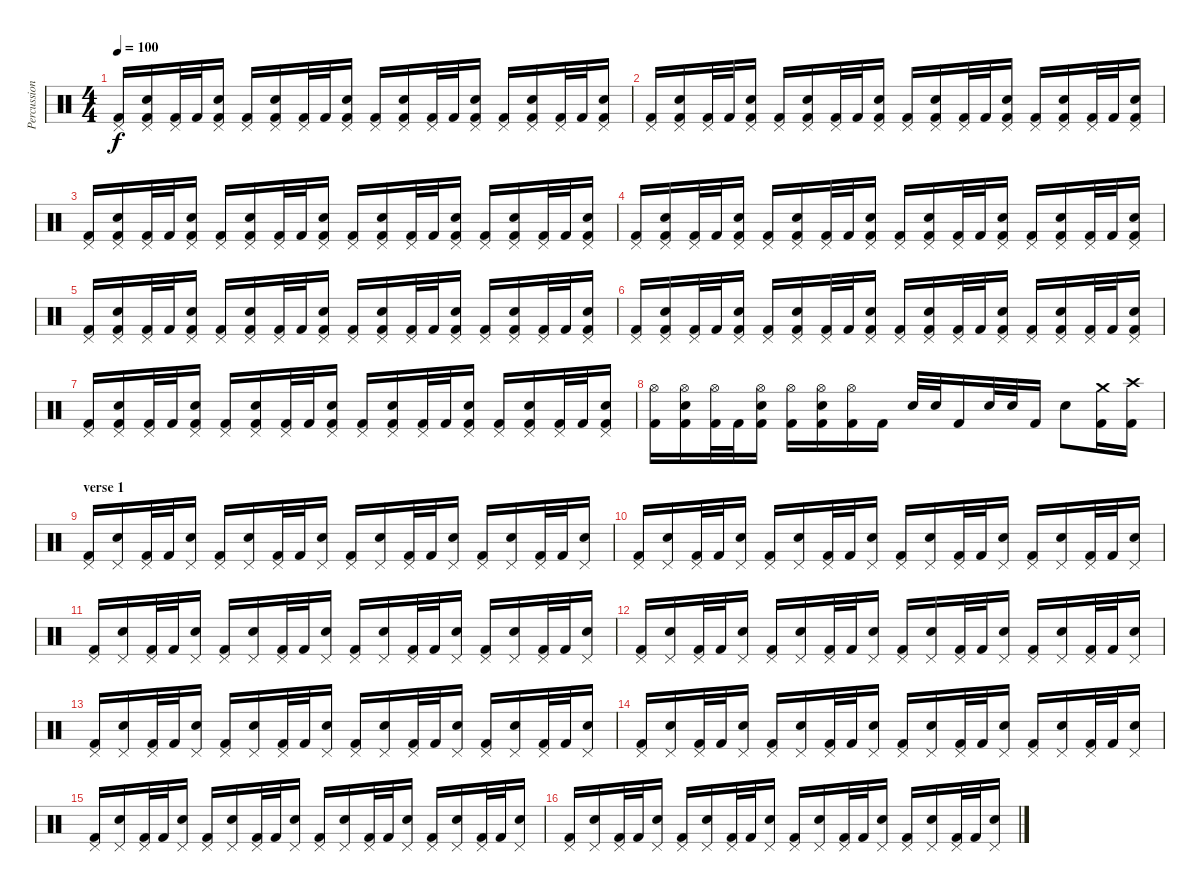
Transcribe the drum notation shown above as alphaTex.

\track ("Percussion" "Percussion") {instrument percussion}
\staff {score}
\articulation defaults
\ts (4 4)
\tempo 100
\clef neutral
\ks c
("Pedal Hi-Hat (hit)" "Kick (hit) 2").16{dy f} ("Pedal Hi-Hat (hit)" "Electric Snare (hit)" "Kick (hit) 2").16 ("Pedal Hi-Hat (hit)" "Kick (hit) 2").32 "Kick (hit) 2".32 ("Pedal Hi-Hat (hit)" "Electric Snare (hit)" "Kick (hit) 2").16 ("Pedal Hi-Hat (hit)" "Kick (hit) 2").16 ("Pedal Hi-Hat (hit)" "Electric Snare (hit)" "Kick (hit) 2").16 ("Pedal Hi-Hat (hit)" "Kick (hit) 2").32 "Kick (hit) 2".32 ("Pedal Hi-Hat (hit)" "Electric Snare (hit)" "Kick (hit) 2").16 ("Pedal Hi-Hat (hit)" "Kick (hit) 2").16 ("Pedal Hi-Hat (hit)" "Electric Snare (hit)" "Kick (hit) 2").16 ("Pedal Hi-Hat (hit)" "Kick (hit) 2").32 "Kick (hit) 2".32 ("Pedal Hi-Hat (hit)" "Electric Snare (hit)" "Kick (hit) 2").16 ("Pedal Hi-Hat (hit)" "Kick (hit) 2").16 ("Pedal Hi-Hat (hit)" "Electric Snare (hit)" "Kick (hit) 2").16 ("Pedal Hi-Hat (hit)" "Kick (hit) 2").32 "Kick (hit) 2".32 ("Pedal Hi-Hat (hit)" "Electric Snare (hit)" "Kick (hit) 2").16 |
("Pedal Hi-Hat (hit)" "Kick (hit) 2").16 ("Pedal Hi-Hat (hit)" "Electric Snare (hit)" "Kick (hit) 2").16 ("Pedal Hi-Hat (hit)" "Kick (hit) 2").32 "Kick (hit) 2".32 ("Pedal Hi-Hat (hit)" "Electric Snare (hit)" "Kick (hit) 2").16 ("Pedal Hi-Hat (hit)" "Kick (hit) 2").16 ("Pedal Hi-Hat (hit)" "Electric Snare (hit)" "Kick (hit) 2").16 ("Pedal Hi-Hat (hit)" "Kick (hit) 2").32 "Kick (hit) 2".32 ("Pedal Hi-Hat (hit)" "Electric Snare (hit)" "Kick (hit) 2").16 ("Pedal Hi-Hat (hit)" "Kick (hit) 2").16 ("Pedal Hi-Hat (hit)" "Electric Snare (hit)" "Kick (hit) 2").16 ("Pedal Hi-Hat (hit)" "Kick (hit) 2").32 "Kick (hit) 2".32 ("Pedal Hi-Hat (hit)" "Electric Snare (hit)" "Kick (hit) 2").16 ("Pedal Hi-Hat (hit)" "Kick (hit) 2").16 ("Pedal Hi-Hat (hit)" "Electric Snare (hit)" "Kick (hit) 2").16 ("Pedal Hi-Hat (hit)" "Kick (hit) 2").32 "Kick (hit) 2".32 ("Pedal Hi-Hat (hit)" "Electric Snare (hit)" "Kick (hit) 2").16 |
("Pedal Hi-Hat (hit)" "Kick (hit) 2").16 ("Pedal Hi-Hat (hit)" "Electric Snare (hit)" "Kick (hit) 2").16 ("Pedal Hi-Hat (hit)" "Kick (hit) 2").32 "Kick (hit) 2".32 ("Pedal Hi-Hat (hit)" "Electric Snare (hit)" "Kick (hit) 2").16 ("Pedal Hi-Hat (hit)" "Kick (hit) 2").16 ("Pedal Hi-Hat (hit)" "Electric Snare (hit)" "Kick (hit) 2").16 ("Pedal Hi-Hat (hit)" "Kick (hit) 2").32 "Kick (hit) 2".32 ("Pedal Hi-Hat (hit)" "Electric Snare (hit)" "Kick (hit) 2").16 ("Pedal Hi-Hat (hit)" "Kick (hit) 2").16 ("Pedal Hi-Hat (hit)" "Electric Snare (hit)" "Kick (hit) 2").16 ("Pedal Hi-Hat (hit)" "Kick (hit) 2").32 "Kick (hit) 2".32 ("Pedal Hi-Hat (hit)" "Electric Snare (hit)" "Kick (hit) 2").16 ("Pedal Hi-Hat (hit)" "Kick (hit) 2").16 ("Pedal Hi-Hat (hit)" "Electric Snare (hit)" "Kick (hit) 2").16 ("Pedal Hi-Hat (hit)" "Kick (hit) 2").32 "Kick (hit) 2".32 ("Pedal Hi-Hat (hit)" "Electric Snare (hit)" "Kick (hit) 2").16 |
("Pedal Hi-Hat (hit)" "Kick (hit) 2").16 ("Pedal Hi-Hat (hit)" "Electric Snare (hit)" "Kick (hit) 2").16 ("Pedal Hi-Hat (hit)" "Kick (hit) 2").32 "Kick (hit) 2".32 ("Pedal Hi-Hat (hit)" "Electric Snare (hit)" "Kick (hit) 2").16 ("Pedal Hi-Hat (hit)" "Kick (hit) 2").16 ("Pedal Hi-Hat (hit)" "Electric Snare (hit)" "Kick (hit) 2").16 ("Pedal Hi-Hat (hit)" "Kick (hit) 2").32 "Kick (hit) 2".32 ("Pedal Hi-Hat (hit)" "Electric Snare (hit)" "Kick (hit) 2").16 ("Pedal Hi-Hat (hit)" "Kick (hit) 2").16 ("Pedal Hi-Hat (hit)" "Electric Snare (hit)" "Kick (hit) 2").16 ("Pedal Hi-Hat (hit)" "Kick (hit) 2").32 "Kick (hit) 2".32 ("Pedal Hi-Hat (hit)" "Electric Snare (hit)" "Kick (hit) 2").16 ("Pedal Hi-Hat (hit)" "Kick (hit) 2").16 ("Pedal Hi-Hat (hit)" "Electric Snare (hit)" "Kick (hit) 2").16 ("Pedal Hi-Hat (hit)" "Kick (hit) 2").32 "Kick (hit) 2".32 ("Pedal Hi-Hat (hit)" "Electric Snare (hit)" "Kick (hit) 2").16 |
("Pedal Hi-Hat (hit)" "Kick (hit) 2").16 ("Pedal Hi-Hat (hit)" "Electric Snare (hit)" "Kick (hit) 2").16 ("Pedal Hi-Hat (hit)" "Kick (hit) 2").32 "Kick (hit) 2".32 ("Pedal Hi-Hat (hit)" "Electric Snare (hit)" "Kick (hit) 2").16 ("Pedal Hi-Hat (hit)" "Kick (hit) 2").16 ("Pedal Hi-Hat (hit)" "Electric Snare (hit)" "Kick (hit) 2").16 ("Pedal Hi-Hat (hit)" "Kick (hit) 2").32 "Kick (hit) 2".32 ("Pedal Hi-Hat (hit)" "Electric Snare (hit)" "Kick (hit) 2").16 ("Pedal Hi-Hat (hit)" "Kick (hit) 2").16 ("Pedal Hi-Hat (hit)" "Electric Snare (hit)" "Kick (hit) 2").16 ("Pedal Hi-Hat (hit)" "Kick (hit) 2").32 "Kick (hit) 2".32 ("Pedal Hi-Hat (hit)" "Electric Snare (hit)" "Kick (hit) 2").16 ("Pedal Hi-Hat (hit)" "Kick (hit) 2").16 ("Pedal Hi-Hat (hit)" "Electric Snare (hit)" "Kick (hit) 2").16 ("Pedal Hi-Hat (hit)" "Kick (hit) 2").32 "Kick (hit) 2".32 ("Pedal Hi-Hat (hit)" "Electric Snare (hit)" "Kick (hit) 2").16 |
("Pedal Hi-Hat (hit)" "Kick (hit) 2").16 ("Pedal Hi-Hat (hit)" "Electric Snare (hit)" "Kick (hit) 2").16 ("Pedal Hi-Hat (hit)" "Kick (hit) 2").32 "Kick (hit) 2".32 ("Pedal Hi-Hat (hit)" "Electric Snare (hit)" "Kick (hit) 2").16 ("Pedal Hi-Hat (hit)" "Kick (hit) 2").16 ("Pedal Hi-Hat (hit)" "Electric Snare (hit)" "Kick (hit) 2").16 ("Pedal Hi-Hat (hit)" "Kick (hit) 2").32 "Kick (hit) 2".32 ("Pedal Hi-Hat (hit)" "Electric Snare (hit)" "Kick (hit) 2").16 ("Pedal Hi-Hat (hit)" "Kick (hit) 2").16 ("Pedal Hi-Hat (hit)" "Electric Snare (hit)" "Kick (hit) 2").16 ("Pedal Hi-Hat (hit)" "Kick (hit) 2").32 "Kick (hit) 2".32 ("Pedal Hi-Hat (hit)" "Electric Snare (hit)" "Kick (hit) 2").16 ("Pedal Hi-Hat (hit)" "Kick (hit) 2").16 ("Pedal Hi-Hat (hit)" "Electric Snare (hit)" "Kick (hit) 2").16 ("Pedal Hi-Hat (hit)" "Kick (hit) 2").32 "Kick (hit) 2".32 ("Pedal Hi-Hat (hit)" "Electric Snare (hit)" "Kick (hit) 2").16 |
("Pedal Hi-Hat (hit)" "Kick (hit) 2").16 ("Pedal Hi-Hat (hit)" "Electric Snare (hit)" "Kick (hit) 2").16 ("Pedal Hi-Hat (hit)" "Kick (hit) 2").32 "Kick (hit) 2".32 ("Pedal Hi-Hat (hit)" "Electric Snare (hit)" "Kick (hit) 2").16 ("Pedal Hi-Hat (hit)" "Kick (hit) 2").16 ("Pedal Hi-Hat (hit)" "Electric Snare (hit)" "Kick (hit) 2").16 ("Pedal Hi-Hat (hit)" "Kick (hit) 2").32 "Kick (hit) 2".32 ("Pedal Hi-Hat (hit)" "Electric Snare (hit)" "Kick (hit) 2").16 ("Pedal Hi-Hat (hit)" "Kick (hit) 2").16 ("Pedal Hi-Hat (hit)" "Electric Snare (hit)" "Kick (hit) 2").16 ("Pedal Hi-Hat (hit)" "Kick (hit) 2").32 "Kick (hit) 2".32 ("Pedal Hi-Hat (hit)" "Electric Snare (hit)" "Kick (hit) 2").16 ("Pedal Hi-Hat (hit)" "Kick (hit) 2").16 ("Pedal Hi-Hat (hit)" "Electric Snare (hit)" "Kick (hit) 2").16 ("Pedal Hi-Hat (hit)" "Kick (hit) 2").32 "Kick (hit) 2".32 ("Pedal Hi-Hat (hit)" "Electric Snare (hit)" "Kick (hit) 2").16 |
("Hi-Hat (open)" "Kick (hit) 2").16 ("Hi-Hat (open)" "Electric Snare (hit)" "Kick (hit) 2").16 ("Hi-Hat (open)" "Kick (hit) 2").32 "Kick (hit) 2".32 ("Hi-Hat (open)" "Electric Snare (hit)" "Kick (hit) 2").16 ("Hi-Hat (open)" "Kick (hit) 2").16 ("Hi-Hat (open)" "Electric Snare (hit)" "Kick (hit) 2").16 ("Hi-Hat (open)" "Kick (hit) 2").16 "Kick (hit) 2".16 "Electric Snare (hit)".32 "Electric Snare (hit)".32 "Kick (hit) 2".16 "Electric Snare (hit)".32 "Electric Snare (hit)".32 "Kick (hit) 2".16 "Electric Snare (hit)".8 ("Crash medium (hit)" "Kick (hit) 2").16 ("Crash high (hit)" "Kick (hit) 2").16 |
\section ("" "verse 1")
("Pedal Hi-Hat (hit)" "Kick (hit) 2").16 ("Pedal Hi-Hat (hit)" "Electric Snare (hit)").16 ("Pedal Hi-Hat (hit)" "Kick (hit) 2").32 "Kick (hit) 2".32 ("Pedal Hi-Hat (hit)" "Electric Snare (hit)").16 ("Pedal Hi-Hat (hit)" "Kick (hit) 2").16 ("Pedal Hi-Hat (hit)" "Electric Snare (hit)").16 ("Pedal Hi-Hat (hit)" "Kick (hit) 2").32 "Kick (hit) 2".32 ("Pedal Hi-Hat (hit)" "Electric Snare (hit)").16 ("Pedal Hi-Hat (hit)" "Kick (hit) 2").16 ("Pedal Hi-Hat (hit)" "Electric Snare (hit)").16 ("Pedal Hi-Hat (hit)" "Kick (hit) 2").32 "Kick (hit) 2".32 ("Pedal Hi-Hat (hit)" "Electric Snare (hit)").16 ("Pedal Hi-Hat (hit)" "Kick (hit) 2").16 ("Pedal Hi-Hat (hit)" "Electric Snare (hit)").16 ("Pedal Hi-Hat (hit)" "Kick (hit) 2").32 "Kick (hit) 2".32 ("Pedal Hi-Hat (hit)" "Electric Snare (hit)").16 |
("Pedal Hi-Hat (hit)" "Kick (hit) 2").16 ("Pedal Hi-Hat (hit)" "Electric Snare (hit)").16 ("Pedal Hi-Hat (hit)" "Kick (hit) 2").32 "Kick (hit) 2".32 ("Pedal Hi-Hat (hit)" "Electric Snare (hit)").16 ("Pedal Hi-Hat (hit)" "Kick (hit) 2").16 ("Pedal Hi-Hat (hit)" "Electric Snare (hit)").16 ("Pedal Hi-Hat (hit)" "Kick (hit) 2").32 "Kick (hit) 2".32 ("Pedal Hi-Hat (hit)" "Electric Snare (hit)").16 ("Pedal Hi-Hat (hit)" "Kick (hit) 2").16 ("Pedal Hi-Hat (hit)" "Electric Snare (hit)").16 ("Pedal Hi-Hat (hit)" "Kick (hit) 2").32 "Kick (hit) 2".32 ("Pedal Hi-Hat (hit)" "Electric Snare (hit)").16 ("Pedal Hi-Hat (hit)" "Kick (hit) 2").16 ("Pedal Hi-Hat (hit)" "Electric Snare (hit)").16 ("Pedal Hi-Hat (hit)" "Kick (hit) 2").32 "Kick (hit) 2".32 ("Pedal Hi-Hat (hit)" "Electric Snare (hit)").16 |
("Pedal Hi-Hat (hit)" "Kick (hit) 2").16 ("Pedal Hi-Hat (hit)" "Electric Snare (hit)").16 ("Pedal Hi-Hat (hit)" "Kick (hit) 2").32 "Kick (hit) 2".32 ("Pedal Hi-Hat (hit)" "Electric Snare (hit)").16 ("Pedal Hi-Hat (hit)" "Kick (hit) 2").16 ("Pedal Hi-Hat (hit)" "Electric Snare (hit)").16 ("Pedal Hi-Hat (hit)" "Kick (hit) 2").32 "Kick (hit) 2".32 ("Pedal Hi-Hat (hit)" "Electric Snare (hit)").16 ("Pedal Hi-Hat (hit)" "Kick (hit) 2").16 ("Pedal Hi-Hat (hit)" "Electric Snare (hit)").16 ("Pedal Hi-Hat (hit)" "Kick (hit) 2").32 "Kick (hit) 2".32 ("Pedal Hi-Hat (hit)" "Electric Snare (hit)").16 ("Pedal Hi-Hat (hit)" "Kick (hit) 2").16 ("Pedal Hi-Hat (hit)" "Electric Snare (hit)").16 ("Pedal Hi-Hat (hit)" "Kick (hit) 2").32 "Kick (hit) 2".32 ("Pedal Hi-Hat (hit)" "Electric Snare (hit)").16 |
("Pedal Hi-Hat (hit)" "Kick (hit) 2").16 ("Pedal Hi-Hat (hit)" "Electric Snare (hit)").16 ("Pedal Hi-Hat (hit)" "Kick (hit) 2").32 "Kick (hit) 2".32 ("Pedal Hi-Hat (hit)" "Electric Snare (hit)").16 ("Pedal Hi-Hat (hit)" "Kick (hit) 2").16 ("Pedal Hi-Hat (hit)" "Electric Snare (hit)").16 ("Pedal Hi-Hat (hit)" "Kick (hit) 2").32 "Kick (hit) 2".32 ("Pedal Hi-Hat (hit)" "Electric Snare (hit)").16 ("Pedal Hi-Hat (hit)" "Kick (hit) 2").16 ("Pedal Hi-Hat (hit)" "Electric Snare (hit)").16 ("Pedal Hi-Hat (hit)" "Kick (hit) 2").32 "Kick (hit) 2".32 ("Pedal Hi-Hat (hit)" "Electric Snare (hit)").16 ("Pedal Hi-Hat (hit)" "Kick (hit) 2").16 ("Pedal Hi-Hat (hit)" "Electric Snare (hit)").16 ("Pedal Hi-Hat (hit)" "Kick (hit) 2").32 "Kick (hit) 2".32 ("Pedal Hi-Hat (hit)" "Electric Snare (hit)").16 |
("Pedal Hi-Hat (hit)" "Kick (hit) 2").16 ("Pedal Hi-Hat (hit)" "Electric Snare (hit)").16 ("Pedal Hi-Hat (hit)" "Kick (hit) 2").32 "Kick (hit) 2".32 ("Pedal Hi-Hat (hit)" "Electric Snare (hit)").16 ("Pedal Hi-Hat (hit)" "Kick (hit) 2").16 ("Pedal Hi-Hat (hit)" "Electric Snare (hit)").16 ("Pedal Hi-Hat (hit)" "Kick (hit) 2").32 "Kick (hit) 2".32 ("Pedal Hi-Hat (hit)" "Electric Snare (hit)").16 ("Pedal Hi-Hat (hit)" "Kick (hit) 2").16 ("Pedal Hi-Hat (hit)" "Electric Snare (hit)").16 ("Pedal Hi-Hat (hit)" "Kick (hit) 2").32 "Kick (hit) 2".32 ("Pedal Hi-Hat (hit)" "Electric Snare (hit)").16 ("Pedal Hi-Hat (hit)" "Kick (hit) 2").16 ("Pedal Hi-Hat (hit)" "Electric Snare (hit)").16 ("Pedal Hi-Hat (hit)" "Kick (hit) 2").32 "Kick (hit) 2".32 ("Pedal Hi-Hat (hit)" "Electric Snare (hit)").16 |
("Pedal Hi-Hat (hit)" "Kick (hit) 2").16 ("Pedal Hi-Hat (hit)" "Electric Snare (hit)").16 ("Pedal Hi-Hat (hit)" "Kick (hit) 2").32 "Kick (hit) 2".32 ("Pedal Hi-Hat (hit)" "Electric Snare (hit)").16 ("Pedal Hi-Hat (hit)" "Kick (hit) 2").16 ("Pedal Hi-Hat (hit)" "Electric Snare (hit)").16 ("Pedal Hi-Hat (hit)" "Kick (hit) 2").32 "Kick (hit) 2".32 ("Pedal Hi-Hat (hit)" "Electric Snare (hit)").16 ("Pedal Hi-Hat (hit)" "Kick (hit) 2").16 ("Pedal Hi-Hat (hit)" "Electric Snare (hit)").16 ("Pedal Hi-Hat (hit)" "Kick (hit) 2").32 "Kick (hit) 2".32 ("Pedal Hi-Hat (hit)" "Electric Snare (hit)").16 ("Pedal Hi-Hat (hit)" "Kick (hit) 2").16 ("Pedal Hi-Hat (hit)" "Electric Snare (hit)").16 ("Pedal Hi-Hat (hit)" "Kick (hit) 2").32 "Kick (hit) 2".32 ("Pedal Hi-Hat (hit)" "Electric Snare (hit)").16 |
("Pedal Hi-Hat (hit)" "Kick (hit) 2").16 ("Pedal Hi-Hat (hit)" "Electric Snare (hit)").16 ("Pedal Hi-Hat (hit)" "Kick (hit) 2").32 "Kick (hit) 2".32 ("Pedal Hi-Hat (hit)" "Electric Snare (hit)").16 ("Pedal Hi-Hat (hit)" "Kick (hit) 2").16 ("Pedal Hi-Hat (hit)" "Electric Snare (hit)").16 ("Pedal Hi-Hat (hit)" "Kick (hit) 2").32 "Kick (hit) 2".32 ("Pedal Hi-Hat (hit)" "Electric Snare (hit)").16 ("Pedal Hi-Hat (hit)" "Kick (hit) 2").16 ("Pedal Hi-Hat (hit)" "Electric Snare (hit)").16 ("Pedal Hi-Hat (hit)" "Kick (hit) 2").32 "Kick (hit) 2".32 ("Pedal Hi-Hat (hit)" "Electric Snare (hit)").16 ("Pedal Hi-Hat (hit)" "Kick (hit) 2").16 ("Pedal Hi-Hat (hit)" "Electric Snare (hit)").16 ("Pedal Hi-Hat (hit)" "Kick (hit) 2").32 "Kick (hit) 2".32 ("Pedal Hi-Hat (hit)" "Electric Snare (hit)").16 |
("Pedal Hi-Hat (hit)" "Kick (hit) 2").16 ("Pedal Hi-Hat (hit)" "Electric Snare (hit)").16 ("Pedal Hi-Hat (hit)" "Kick (hit) 2").32 "Kick (hit) 2".32 ("Pedal Hi-Hat (hit)" "Electric Snare (hit)").16 ("Pedal Hi-Hat (hit)" "Kick (hit) 2").16 ("Pedal Hi-Hat (hit)" "Electric Snare (hit)").16 ("Pedal Hi-Hat (hit)" "Kick (hit) 2").32 "Kick (hit) 2".32 ("Pedal Hi-Hat (hit)" "Electric Snare (hit)").16 ("Pedal Hi-Hat (hit)" "Kick (hit) 2").16 ("Pedal Hi-Hat (hit)" "Electric Snare (hit)").16 ("Pedal Hi-Hat (hit)" "Kick (hit) 2").32 "Kick (hit) 2".32 ("Pedal Hi-Hat (hit)" "Electric Snare (hit)").16 ("Pedal Hi-Hat (hit)" "Kick (hit) 2").16 ("Pedal Hi-Hat (hit)" "Electric Snare (hit)").16 ("Pedal Hi-Hat (hit)" "Kick (hit) 2").32 "Kick (hit) 2".32 ("Pedal Hi-Hat (hit)" "Electric Snare (hit)").16
